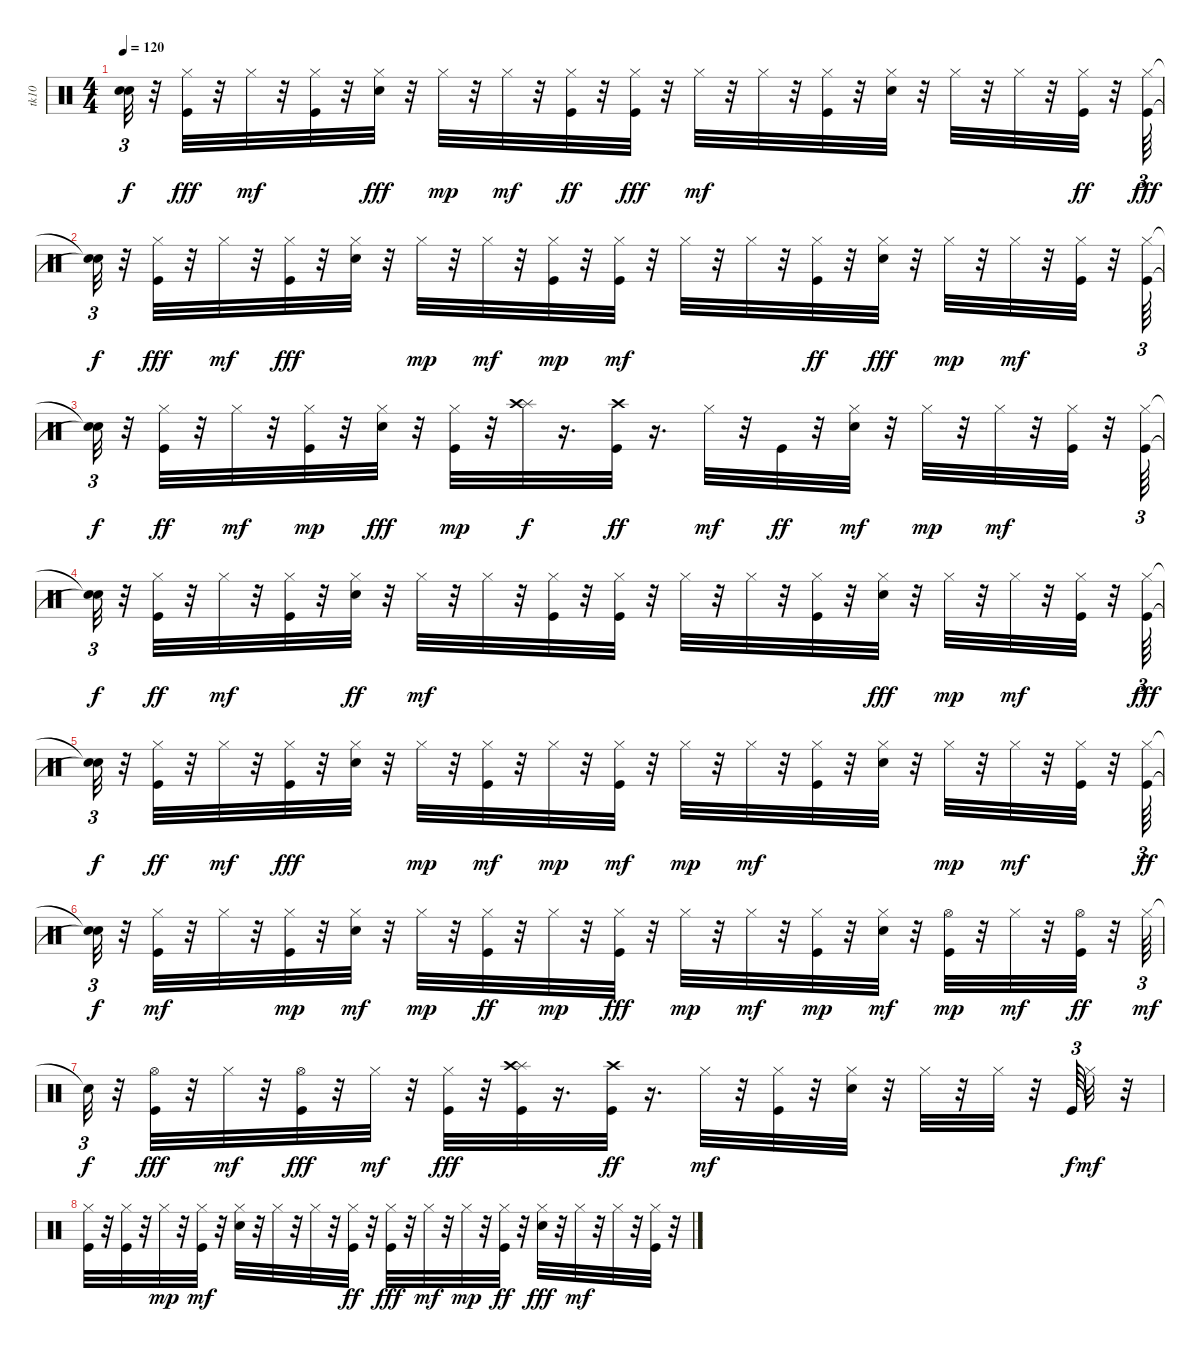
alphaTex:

\track ("tk10" "tk10") {instrument percussion}
\staff {score}
\articulation defaults
\ts (4 4)
\tempo 120
\clef neutral
\ks c
("Snare (hit)"{t} "Snare (hit)"{t}).32{tu (3 2) dy f} r.32 ("Hi-Hat (closed)" "Kick (hit)").32{dy fff} r.32 "Hi-Hat (closed)".32{dy mf} r.32 ("Kick (hit)" "Hi-Hat (closed)").32 r.32 ("Hi-Hat (closed)" "Snare (hit) 2").32{dy fff} r.32 "Hi-Hat (closed)".32{dy mp} r.32 "Hi-Hat (closed)".32{dy mf} r.32 ("Hi-Hat (closed)" "Kick (hit)").32{dy ff} r.32 ("Hi-Hat (closed)" "Kick (hit)").32{dy fff} r.32 "Hi-Hat (closed)".32{dy mf} r.32 "Hi-Hat (closed)".32 r.32 ("Kick (hit)" "Hi-Hat (closed)").32 r.32 ("Snare (hit) 2" "Hi-Hat (closed)").32 r.32 "Hi-Hat (closed)".32 r.32 "Hi-Hat (closed)".32 r.32 ("Hi-Hat (closed)" "Kick (hit)").32{dy ff} r.32 ("Hi-Hat (closed)" "Kick (hit)").64{tu (3 2) dy fff} |
("Snare (hit)"{t} "Snare (hit)"{t}).32{tu (3 2) dy f} r.32 ("Hi-Hat (closed)" "Kick (hit)").32{dy fff} r.32 "Hi-Hat (closed)".32{dy mf} r.32 ("Hi-Hat (closed)" "Kick (hit)").32{dy fff} r.32 ("Hi-Hat (closed)" "Snare (hit) 2").32 r.32 "Hi-Hat (closed)".32{dy mp} r.32 "Hi-Hat (closed)".32{dy mf} r.32 ("Kick (hit)" "Hi-Hat (closed)").32{dy mp} r.32 ("Kick (hit)" "Hi-Hat (closed)").32{dy mf} r.32 "Hi-Hat (closed)".32 r.32 "Hi-Hat (closed)".32 r.32 ("Hi-Hat (closed)" "Kick (hit)").32{dy ff} r.32 ("Hi-Hat (closed)" "Snare (hit) 2").32{dy fff} r.32 "Hi-Hat (closed)".32{dy mp} r.32 "Hi-Hat (closed)".32{dy mf} r.32 ("Kick (hit)" "Hi-Hat (closed)").32 r.32 ("Kick (hit)" "Hi-Hat (closed)").64{tu (3 2)} |
("Snare (hit)"{t} "Snare (hit)"{t}).32{tu (3 2) dy f} r.32 ("Hi-Hat (closed)" "Kick (hit)").32{dy ff} r.32 "Hi-Hat (closed)".32{dy mf} r.32 ("Kick (hit)" "Hi-Hat (closed)").32{dy mp} r.32 ("Hi-Hat (closed)" "Snare (hit) 2").32{dy fff} r.32 ("Kick (hit)" "Hi-Hat (closed)").32{dy mp} r.32 ("Splash (hit)" "Crash high (hit)").32{dy f} r.16{d} ("Kick (hit)" "Crash high (hit)").32{dy ff} r.16{d} "Hi-Hat (closed)".32{dy mf} r.32 "Kick (hit)".32{dy ff} r.32 ("Snare (hit) 2" "Hi-Hat (closed)").32{dy mf} r.32 "Hi-Hat (closed)".32{dy mp} r.32 "Hi-Hat (closed)".32{dy mf} r.32 ("Kick (hit)" "Hi-Hat (closed)").32 r.32 ("Kick (hit)" "Hi-Hat (closed)").64{tu (3 2)} |
("Snare (hit)"{t} "Snare (hit)"{t}).32{tu (3 2) dy f} r.32 ("Hi-Hat (closed)" "Kick (hit)").32{dy ff} r.32 "Hi-Hat (closed)".32{dy mf} r.32 ("Kick (hit)" "Hi-Hat (closed)").32 r.32 ("Hi-Hat (closed)" "Snare (hit) 2").32{dy ff} r.32 "Hi-Hat (closed)".32{dy mf} r.32 "Hi-Hat (closed)".32 r.32 ("Kick (hit)" "Hi-Hat (closed)").32 r.32 ("Kick (hit)" "Hi-Hat (closed)").32 r.32 "Hi-Hat (closed)".32 r.32 "Hi-Hat (closed)".32 r.32 ("Kick (hit)" "Hi-Hat (closed)").32 r.32 ("Hi-Hat (closed)" "Snare (hit) 2").32{dy fff} r.32 "Hi-Hat (closed)".32{dy mp} r.32 "Hi-Hat (closed)".32{dy mf} r.32 ("Kick (hit)" "Hi-Hat (closed)").32 r.32 ("Hi-Hat (closed)" "Kick (hit)").64{tu (3 2) dy fff} |
("Snare (hit)"{t} "Snare (hit)"{t}).32{tu (3 2) dy f} r.32 ("Hi-Hat (closed)" "Kick (hit)").32{dy ff} r.32 "Hi-Hat (closed)".32{dy mf} r.32 ("Hi-Hat (closed)" "Kick (hit)").32{dy fff} r.32 ("Hi-Hat (closed)" "Snare (hit) 2").32 r.32 "Hi-Hat (closed)".32{dy mp} r.32 ("Kick (hit)" "Hi-Hat (closed)").32{dy mf} r.32 "Hi-Hat (closed)".32{dy mp} r.32 ("Kick (hit)" "Hi-Hat (closed)").32{dy mf} r.32 "Hi-Hat (closed)".32{dy mp} r.32 "Hi-Hat (closed)".32{dy mf} r.32 ("Kick (hit)" "Hi-Hat (closed)").32 r.32 ("Snare (hit) 2" "Hi-Hat (closed)").32 r.32 "Hi-Hat (closed)".32{dy mp} r.32 "Hi-Hat (closed)".32{dy mf} r.32 ("Hi-Hat (closed)" "Kick (hit)").32 r.32 ("Hi-Hat (closed)" "Kick (hit)").64{tu (3 2) dy ff} |
("Snare (hit)"{t} "Snare (hit)"{t}).32{tu (3 2) dy f} r.32 ("Kick (hit)" "Hi-Hat (closed)").32{dy mf} r.32 "Hi-Hat (closed)".32 r.32 ("Kick (hit)" "Hi-Hat (closed)").32{dy mp} r.32 ("Snare (hit) 2" "Hi-Hat (closed)").32{dy mf} r.32 "Hi-Hat (closed)".32{dy mp} r.32 ("Hi-Hat (closed)" "Kick (hit)").32{dy ff} r.32 "Hi-Hat (closed)".32{dy mp} r.32 ("Hi-Hat (closed)" "Kick (hit)").32{dy fff} r.32 "Hi-Hat (closed)".32{dy mp} r.32 "Hi-Hat (closed)".32{dy mf} r.32 ("Kick (hit)" "Hi-Hat (closed)").32{dy mp} r.32 ("Snare (hit) 2" "Hi-Hat (closed)").32{dy mf} r.32 ("Kick (hit)" "Hi-Hat (open)").32{dy mp} r.32 "Hi-Hat (closed)".32{dy mf} r.32 ("Hi-Hat (open)" "Kick (hit)").32{dy ff} r.32 "Hi-Hat (closed)".64{tu (3 2) dy mf} |
"Snare (hit)"{t}.32{tu (3 2) dy f} r.32 ("Hi-Hat (open)" "Kick (hit)").32{dy fff} r.32 "Hi-Hat (closed)".32{dy mf} r.32 ("Hi-Hat (open)" "Kick (hit)").32{dy fff} r.32 "Hi-Hat (closed)".32{dy mf} r.32 ("Hi-Hat (closed)" "Kick (hit)").32{dy fff} r.32 ("Splash (hit)" "Crash high (hit)" "Kick (hit)").32 r.16{d} ("Kick (hit)" "Crash high (hit)").32{dy ff} r.16{d} "Hi-Hat (closed)".32{dy mf} r.32 ("Kick (hit)" "Hi-Hat (closed)").32 r.32 ("Snare (hit) 2" "Hi-Hat (closed)").32 r.32 "Hi-Hat (closed)".32 r.32 "Hi-Hat (closed)".32 r.32 "Kick (hit)".64{tu (3 2) dy f} "Hi-Hat (closed)".32{dy mf} r.32 |
("Kick (hit)" "Hi-Hat (closed)").32 r.32 ("Kick (hit)" "Hi-Hat (closed)").32 r.32 "Hi-Hat (closed)".32{dy mp} r.32 ("Kick (hit)" "Hi-Hat (closed)").32{dy mf} r.32 ("Snare (hit) 2" "Hi-Hat (closed)").32 r.32 "Hi-Hat (closed)".32 r.32 "Hi-Hat (closed)".32 r.32 ("Hi-Hat (closed)" "Kick (hit)").32{dy ff} r.32 ("Hi-Hat (closed)" "Kick (hit)").32{dy fff} r.32 "Hi-Hat (closed)".32{dy mf} r.32 "Hi-Hat (closed)".32{dy mp} r.32 ("Hi-Hat (closed)" "Kick (hit)").32{dy ff} r.32 ("Hi-Hat (closed)" "Snare (hit) 2").32{dy fff} r.32 "Hi-Hat (closed)".32{dy mf} r.32 "Hi-Hat (closed)".32 r.32 ("Kick (hit)" "Hi-Hat (closed)").32 r.32
